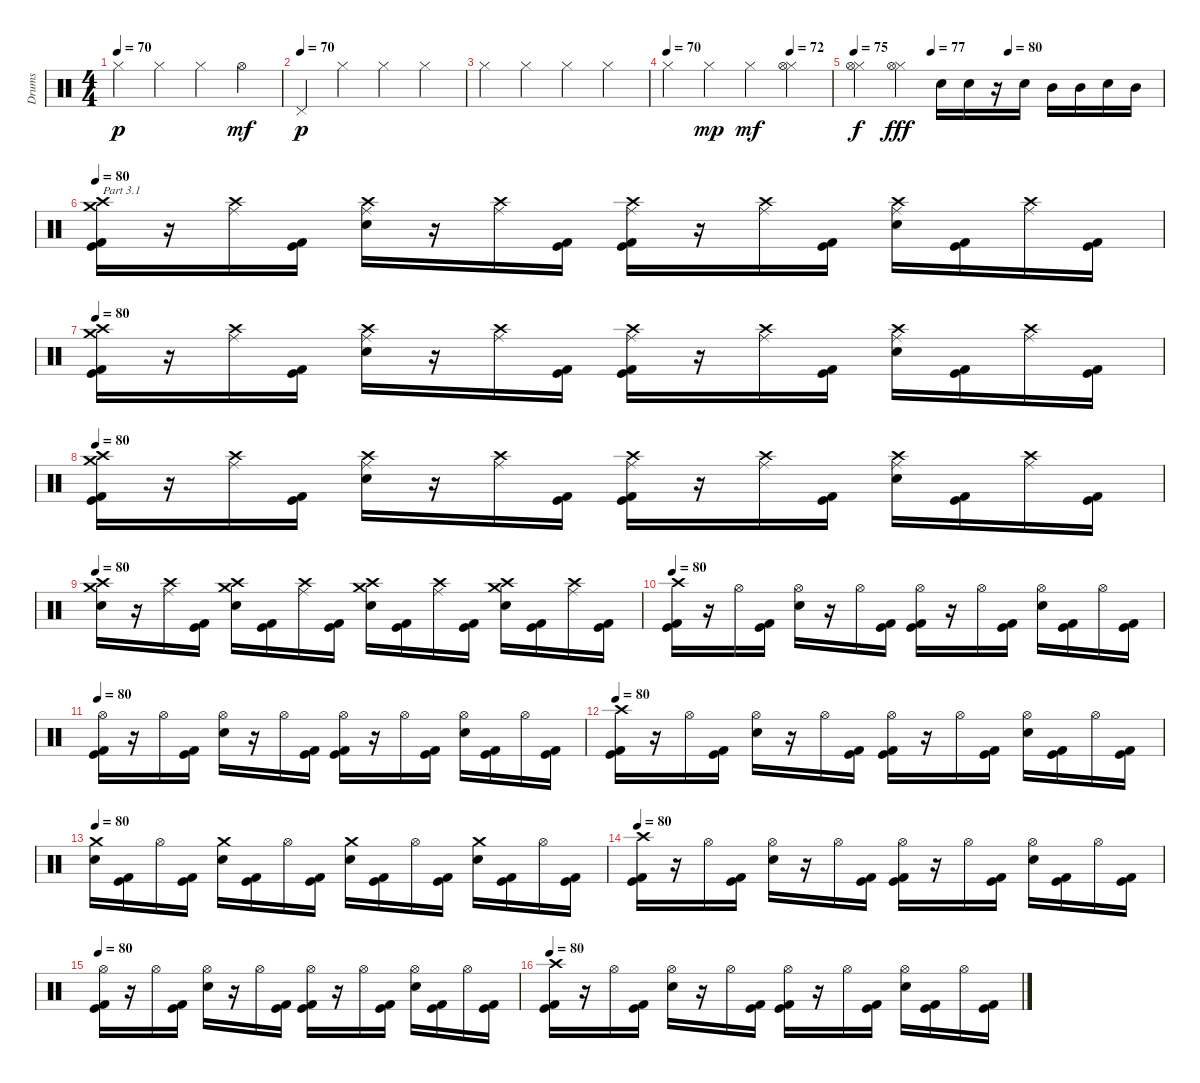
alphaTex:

\track ("Drums" "Drums") {instrument percussion}
\staff {score}
\articulation defaults
\ts (4 4)
\tempo 70
\clef neutral
\ks c "Hi-Hat (closed)".4{dy p} "Hi-Hat (closed)".4 "Hi-Hat (closed)".4 "Hi-Hat (open)".4{dy mf}
|
\tempo (70)
"Pedal Hi-Hat (hit)".4{dy p} "Hi-Hat (closed)".4 "Hi-Hat (closed)".4 "Hi-Hat (closed)".4 |
"Hi-Hat (closed)".4 "Hi-Hat (closed)".4 "Hi-Hat (closed)".4 "Hi-Hat (closed)".4 |
\tempo 70
\tempo (72 0.75)
"Hi-Hat (closed)".4 "Hi-Hat (closed)".4{dy mp} "Hi-Hat (closed)".4{dy mf} ("Hi-Hat (closed)" "Hi-Hat (open)").4 |
\tempo 75
\tempo (77 0.25)
\tempo (80 0.5)
("Hi-Hat (closed)" "Hi-Hat (open)").4{dy f} ("Hi-Hat (closed)" "Hi-Hat (open)").4{dy fff} "Electric Snare (hit)".16{balance 8} "Electric Snare (hit)".16 r.16 "Electric Snare (hit)".16 "Mid Tom (hit)".16 "Mid Tom (hit)".16 "Electric Snare (hit)".16 "Mid Tom (hit)".16 |
\tempo 80
("Kick (hit)" "Kick (hit) 2" "Crash high (hit)" "Crash medium (hit)").16{txt "Part 3.1"} r.16 ("Crash high (hit)" "Ride (middle)").16 ("Kick (hit)" "Kick (hit) 2").16 ("Electric Snare (hit)" "Crash high (hit)" "Ride (middle)").16 r.16 ("Crash high (hit)" "Ride (middle)").16 ("Kick (hit)" "Kick (hit) 2").16 ("Kick (hit)" "Kick (hit) 2" "Crash high (hit)" "Ride (middle)").16 r.16 ("Crash high (hit)" "Ride (middle)").16 ("Kick (hit)" "Kick (hit) 2").16 ("Electric Snare (hit)" "Crash high (hit)" "Ride (middle)").16 ("Kick (hit)" "Kick (hit) 2").16 ("Crash high (hit)" "Ride (middle)").16 ("Kick (hit)" "Kick (hit) 2").16 |
\tempo 80
("Kick (hit)" "Kick (hit) 2" "Crash high (hit)" "Crash medium (hit)").16 r.16 ("Crash high (hit)" "Ride (middle)").16 ("Kick (hit)" "Kick (hit) 2").16 ("Electric Snare (hit)" "Crash high (hit)" "Ride (middle)").16 r.16 ("Crash high (hit)" "Ride (middle)").16 ("Kick (hit)" "Kick (hit) 2").16 ("Kick (hit)" "Kick (hit) 2" "Crash high (hit)" "Ride (middle)").16 r.16 ("Crash high (hit)" "Ride (middle)").16 ("Kick (hit)" "Kick (hit) 2").16 ("Electric Snare (hit)" "Crash high (hit)" "Ride (middle)").16 ("Kick (hit)" "Kick (hit) 2").16 ("Crash high (hit)" "Ride (middle)").16 ("Kick (hit)" "Kick (hit) 2").16 |
\tempo 80
("Kick (hit)" "Kick (hit) 2" "Crash high (hit)" "Crash medium (hit)").16 r.16 ("Crash high (hit)" "Ride (middle)").16 ("Kick (hit)" "Kick (hit) 2").16 ("Electric Snare (hit)" "Crash high (hit)" "Ride (middle)").16 r.16 ("Crash high (hit)" "Ride (middle)").16 ("Kick (hit)" "Kick (hit) 2").16 ("Kick (hit)" "Kick (hit) 2" "Crash high (hit)" "Ride (middle)").16 r.16 ("Crash high (hit)" "Ride (middle)").16 ("Kick (hit)" "Kick (hit) 2").16 ("Electric Snare (hit)" "Crash high (hit)" "Ride (middle)").16 ("Kick (hit)" "Kick (hit) 2").16 ("Crash high (hit)" "Ride (middle)").16 ("Kick (hit)" "Kick (hit) 2").16 |
\tempo 80
("Electric Snare (hit)" "Crash high (hit)" "Crash medium (hit)").16 r.16 ("Crash high (hit)" "Ride (middle)").16 ("Kick (hit)" "Kick (hit) 2").16 ("Electric Snare (hit)" "Crash high (hit)" "Crash medium (hit)").16 ("Kick (hit)" "Kick (hit) 2").16 ("Crash high (hit)" "Ride (middle)").16 ("Kick (hit)" "Kick (hit) 2").16 ("Electric Snare (hit)" "Crash high (hit)" "Crash medium (hit)").16 ("Kick (hit)" "Kick (hit) 2").16 ("Crash high (hit)" "Ride (middle)").16 ("Kick (hit)" "Kick (hit) 2").16 ("Electric Snare (hit)" "Crash high (hit)" "Crash medium (hit)").16 ("Kick (hit)" "Kick (hit) 2").16 ("Crash high (hit)" "Ride (middle)").16 ("Kick (hit)" "Kick (hit) 2").16 |
\tempo 80
("Kick (hit)" "Kick (hit) 2" "Crash high (hit)").16 r.16 "Hi-Hat (open)".16 ("Kick (hit)" "Kick (hit) 2").16 ("Electric Snare (hit)" "Hi-Hat (open)").16 r.16 "Hi-Hat (open)".16 ("Kick (hit)" "Kick (hit) 2").16 ("Kick (hit)" "Kick (hit) 2" "Hi-Hat (open)").16 r.16 "Hi-Hat (open)".16 ("Kick (hit)" "Kick (hit) 2").16 ("Electric Snare (hit)" "Hi-Hat (open)").16 ("Kick (hit)" "Kick (hit) 2").16 "Hi-Hat (open)".16 ("Kick (hit)" "Kick (hit) 2").16 |
\tempo 80
("Kick (hit)" "Kick (hit) 2" "Hi-Hat (open)").16 r.16 "Hi-Hat (open)".16 ("Kick (hit)" "Kick (hit) 2").16 ("Electric Snare (hit)" "Hi-Hat (open)").16 r.16 "Hi-Hat (open)".16 ("Kick (hit)" "Kick (hit) 2").16 ("Kick (hit)" "Kick (hit) 2" "Hi-Hat (open)").16 r.16 "Hi-Hat (open)".16 ("Kick (hit)" "Kick (hit) 2").16 ("Electric Snare (hit)" "Hi-Hat (open)").16 ("Kick (hit)" "Kick (hit) 2").16 "Hi-Hat (open)".16 ("Kick (hit)" "Kick (hit) 2").16 |
\tempo 80
("Kick (hit)" "Kick (hit) 2" "Crash high (hit)").16 r.16 "Hi-Hat (open)".16 ("Kick (hit)" "Kick (hit) 2").16 ("Electric Snare (hit)" "Hi-Hat (open)").16 r.16 "Hi-Hat (open)".16 ("Kick (hit)" "Kick (hit) 2").16 ("Kick (hit)" "Kick (hit) 2" "Hi-Hat (open)").16 r.16 "Hi-Hat (open)".16 ("Kick (hit)" "Kick (hit) 2").16 ("Electric Snare (hit)" "Hi-Hat (open)").16 ("Kick (hit)" "Kick (hit) 2").16 "Hi-Hat (open)".16 ("Kick (hit)" "Kick (hit) 2").16 |
\tempo 80
("Electric Snare (hit)" "Crash medium (hit)").16 ("Kick (hit)" "Kick (hit) 2").16 "Hi-Hat (open)".16 ("Kick (hit)" "Kick (hit) 2").16 ("Electric Snare (hit)" "Crash medium (hit)").16 ("Kick (hit)" "Kick (hit) 2").16 "Hi-Hat (open)".16 ("Kick (hit)" "Kick (hit) 2").16 ("Electric Snare (hit)" "Crash medium (hit)").16 ("Kick (hit)" "Kick (hit) 2").16 "Hi-Hat (open)".16 ("Kick (hit)" "Kick (hit) 2").16 ("Electric Snare (hit)" "Crash medium (hit)").16 ("Kick (hit)" "Kick (hit) 2").16 "Hi-Hat (open)".16 ("Kick (hit)" "Kick (hit) 2").16 |
\tempo 80
("Kick (hit)" "Kick (hit) 2" "Crash high (hit)").16 r.16 "Hi-Hat (open)".16 ("Kick (hit)" "Kick (hit) 2").16 ("Electric Snare (hit)" "Hi-Hat (open)").16 r.16 "Hi-Hat (open)".16 ("Kick (hit)" "Kick (hit) 2").16 ("Kick (hit)" "Kick (hit) 2" "Hi-Hat (open)").16 r.16 "Hi-Hat (open)".16 ("Kick (hit)" "Kick (hit) 2").16 ("Electric Snare (hit)" "Hi-Hat (open)").16 ("Kick (hit)" "Kick (hit) 2").16 "Hi-Hat (open)".16 ("Kick (hit)" "Kick (hit) 2").16 |
\tempo 80
("Kick (hit)" "Kick (hit) 2" "Hi-Hat (open)").16 r.16 "Hi-Hat (open)".16 ("Kick (hit)" "Kick (hit) 2").16 ("Electric Snare (hit)" "Hi-Hat (open)").16 r.16 "Hi-Hat (open)".16 ("Kick (hit)" "Kick (hit) 2").16 ("Kick (hit)" "Kick (hit) 2" "Hi-Hat (open)").16 r.16 "Hi-Hat (open)".16 ("Kick (hit)" "Kick (hit) 2").16 ("Electric Snare (hit)" "Hi-Hat (open)").16 ("Kick (hit)" "Kick (hit) 2").16 "Hi-Hat (open)".16 ("Kick (hit)" "Kick (hit) 2").16 |
\tempo 80
("Kick (hit)" "Kick (hit) 2" "Crash high (hit)").16 r.16 "Hi-Hat (open)".16 ("Kick (hit)" "Kick (hit) 2").16 ("Electric Snare (hit)" "Hi-Hat (open)").16 r.16 "Hi-Hat (open)".16 ("Kick (hit)" "Kick (hit) 2").16 ("Kick (hit)" "Kick (hit) 2" "Hi-Hat (open)").16 r.16 "Hi-Hat (open)".16 ("Kick (hit)" "Kick (hit) 2").16 ("Electric Snare (hit)" "Hi-Hat (open)").16 ("Kick (hit)" "Kick (hit) 2").16 "Hi-Hat (open)".16 ("Kick (hit)" "Kick (hit) 2").16
